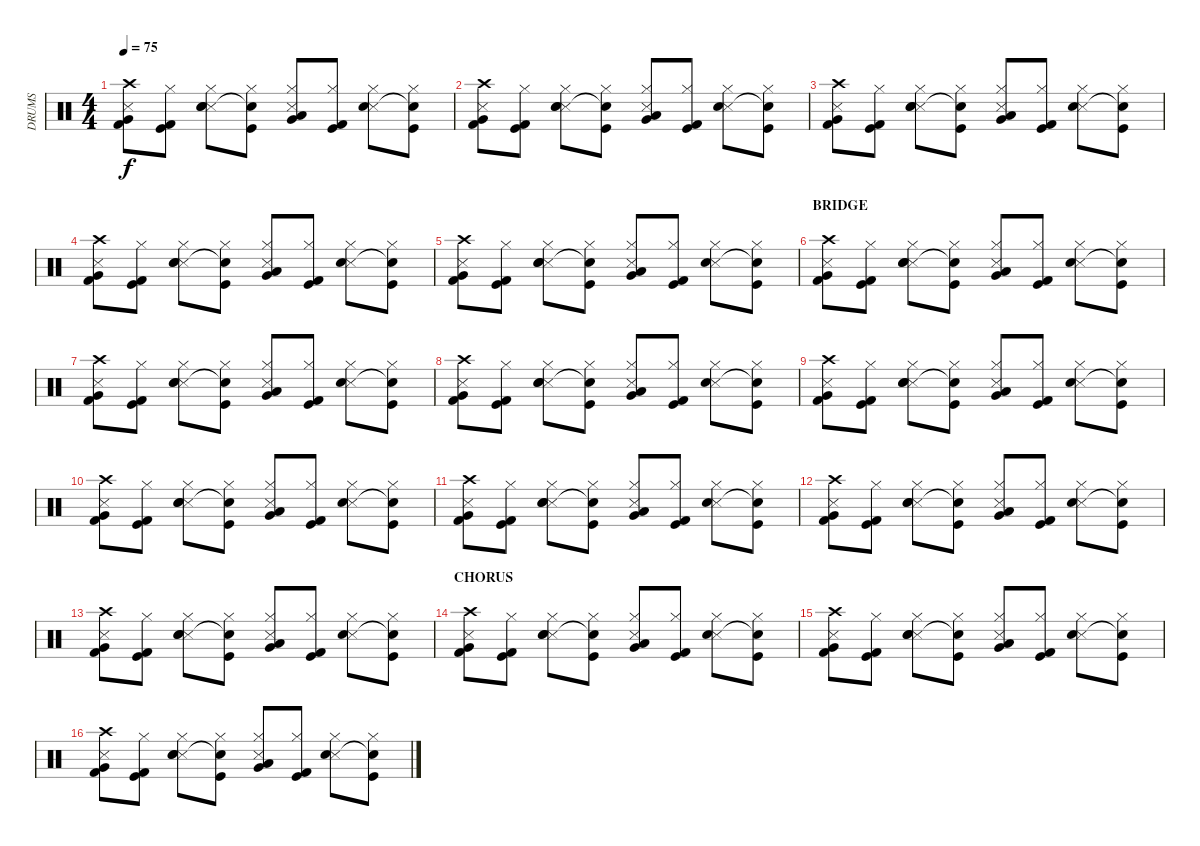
\track ("DRUMS" "DRUMS") {instrument percussion}
\staff {score}
\articulation defaults
\ts (4 4)
\tempo 75
\clef neutral
\ks c
("Crash high (hit)" "Snare (side stick) 3" "Very Low Tom (hit)" "Kick (hit) 2").8{dy f} ("Hi-Hat (closed)" "Kick (hit)" "Kick (hit) 2").8 ("Hi-Hat (closed)" "Snare (side stick) 3" "Electric Snare (hit)" "Snare (hit) 2").8 ("Hi-Hat (closed)" "Kick (hit)" "Snare (hit)"{t}).8 ("Hi-Hat (closed)" "Snare (side stick) 3" "Very Low Tom (hit)" "Low Floor Tom (hit)").8 ("Hi-Hat (closed)" "Kick (hit)" "Kick (hit) 2").8 ("Hi-Hat (closed)" "Snare (side stick) 3" "Electric Snare (hit)").8 ("Hi-Hat (closed)" "Kick (hit)" "Snare (hit)"{t}).8 |
("Crash high (hit)" "Snare (side stick) 3" "Very Low Tom (hit)" "Kick (hit) 2").8 ("Hi-Hat (closed)" "Kick (hit)" "Kick (hit) 2").8 ("Hi-Hat (closed)" "Snare (side stick) 3" "Electric Snare (hit)" "Snare (hit) 2").8 ("Hi-Hat (closed)" "Kick (hit)" "Snare (hit)"{t}).8 ("Hi-Hat (closed)" "Snare (side stick) 3" "Very Low Tom (hit)" "Low Floor Tom (hit)").8 ("Hi-Hat (closed)" "Kick (hit)" "Kick (hit) 2").8 ("Hi-Hat (closed)" "Snare (side stick) 3" "Electric Snare (hit)").8 ("Hi-Hat (closed)" "Kick (hit)" "Snare (hit)"{t}).8 |
("Crash high (hit)" "Snare (side stick) 3" "Very Low Tom (hit)" "Kick (hit) 2").8 ("Hi-Hat (closed)" "Kick (hit)" "Kick (hit) 2").8 ("Hi-Hat (closed)" "Snare (side stick) 3" "Electric Snare (hit)" "Snare (hit) 2").8 ("Hi-Hat (closed)" "Kick (hit)" "Snare (hit)"{t}).8 ("Hi-Hat (closed)" "Snare (side stick) 3" "Very Low Tom (hit)" "Low Floor Tom (hit)").8 ("Hi-Hat (closed)" "Kick (hit)" "Kick (hit) 2").8 ("Hi-Hat (closed)" "Snare (side stick) 3" "Electric Snare (hit)").8 ("Hi-Hat (closed)" "Kick (hit)" "Snare (hit)"{t}).8 |
("Crash high (hit)" "Snare (side stick) 3" "Very Low Tom (hit)" "Kick (hit) 2").8 ("Hi-Hat (closed)" "Kick (hit)" "Kick (hit) 2").8 ("Hi-Hat (closed)" "Snare (side stick) 3" "Electric Snare (hit)" "Snare (hit) 2").8 ("Hi-Hat (closed)" "Kick (hit)" "Snare (hit)"{t}).8 ("Hi-Hat (closed)" "Snare (side stick) 3" "Very Low Tom (hit)" "Low Floor Tom (hit)").8 ("Hi-Hat (closed)" "Kick (hit)" "Kick (hit) 2").8 ("Hi-Hat (closed)" "Snare (side stick) 3" "Electric Snare (hit)").8 ("Hi-Hat (closed)" "Kick (hit)" "Snare (hit)"{t}).8 |
("Crash high (hit)" "Snare (side stick) 3" "Very Low Tom (hit)" "Kick (hit) 2").8 ("Hi-Hat (closed)" "Kick (hit)" "Kick (hit) 2").8 ("Hi-Hat (closed)" "Snare (side stick) 3" "Electric Snare (hit)" "Snare (hit) 2").8 ("Hi-Hat (closed)" "Kick (hit)" "Snare (hit)"{t}).8 ("Hi-Hat (closed)" "Snare (side stick) 3" "Very Low Tom (hit)" "Low Floor Tom (hit)").8 ("Hi-Hat (closed)" "Kick (hit)" "Kick (hit) 2").8 ("Hi-Hat (closed)" "Snare (side stick) 3" "Electric Snare (hit)").8 ("Hi-Hat (closed)" "Kick (hit)" "Snare (hit)"{t}).8 |
\section ("" "BRIDGE")
("Crash high (hit)" "Snare (side stick) 3" "Very Low Tom (hit)" "Kick (hit) 2").8 ("Hi-Hat (closed)" "Kick (hit)" "Kick (hit) 2").8 ("Hi-Hat (closed)" "Snare (side stick) 3" "Electric Snare (hit)" "Snare (hit) 2").8 ("Hi-Hat (closed)" "Kick (hit)" "Snare (hit)"{t}).8 ("Hi-Hat (closed)" "Snare (side stick) 3" "Very Low Tom (hit)" "Low Floor Tom (hit)").8 ("Hi-Hat (closed)" "Kick (hit)" "Kick (hit) 2").8 ("Hi-Hat (closed)" "Snare (side stick) 3" "Electric Snare (hit)").8 ("Hi-Hat (closed)" "Kick (hit)" "Snare (hit)"{t}).8 |
("Crash high (hit)" "Snare (side stick) 3" "Very Low Tom (hit)" "Kick (hit) 2").8 ("Hi-Hat (closed)" "Kick (hit)" "Kick (hit) 2").8 ("Hi-Hat (closed)" "Snare (side stick) 3" "Electric Snare (hit)" "Snare (hit) 2").8 ("Hi-Hat (closed)" "Kick (hit)" "Snare (hit)"{t}).8 ("Hi-Hat (closed)" "Snare (side stick) 3" "Very Low Tom (hit)" "Low Floor Tom (hit)").8 ("Hi-Hat (closed)" "Kick (hit)" "Kick (hit) 2").8 ("Hi-Hat (closed)" "Snare (side stick) 3" "Electric Snare (hit)").8 ("Hi-Hat (closed)" "Kick (hit)" "Snare (hit)"{t}).8 |
("Crash high (hit)" "Snare (side stick) 3" "Very Low Tom (hit)" "Kick (hit) 2").8 ("Hi-Hat (closed)" "Kick (hit)" "Kick (hit) 2").8 ("Hi-Hat (closed)" "Snare (side stick) 3" "Electric Snare (hit)" "Snare (hit) 2").8 ("Hi-Hat (closed)" "Kick (hit)" "Snare (hit)"{t}).8 ("Hi-Hat (closed)" "Snare (side stick) 3" "Very Low Tom (hit)" "Low Floor Tom (hit)").8 ("Hi-Hat (closed)" "Kick (hit)" "Kick (hit) 2").8 ("Hi-Hat (closed)" "Snare (side stick) 3" "Electric Snare (hit)").8 ("Hi-Hat (closed)" "Kick (hit)" "Snare (hit)"{t}).8 |
("Crash high (hit)" "Snare (side stick) 3" "Very Low Tom (hit)" "Kick (hit) 2").8 ("Hi-Hat (closed)" "Kick (hit)" "Kick (hit) 2").8 ("Hi-Hat (closed)" "Snare (side stick) 3" "Electric Snare (hit)" "Snare (hit) 2").8 ("Hi-Hat (closed)" "Kick (hit)" "Snare (hit)"{t}).8 ("Hi-Hat (closed)" "Snare (side stick) 3" "Very Low Tom (hit)" "Low Floor Tom (hit)").8 ("Hi-Hat (closed)" "Kick (hit)" "Kick (hit) 2").8 ("Hi-Hat (closed)" "Snare (side stick) 3" "Electric Snare (hit)").8 ("Hi-Hat (closed)" "Kick (hit)" "Snare (hit)"{t}).8 |
("Crash high (hit)" "Snare (side stick) 3" "Very Low Tom (hit)" "Kick (hit) 2").8 ("Hi-Hat (closed)" "Kick (hit)" "Kick (hit) 2").8 ("Hi-Hat (closed)" "Snare (side stick) 3" "Electric Snare (hit)" "Snare (hit) 2").8 ("Hi-Hat (closed)" "Kick (hit)" "Snare (hit)"{t}).8 ("Hi-Hat (closed)" "Snare (side stick) 3" "Very Low Tom (hit)" "Low Floor Tom (hit)").8 ("Hi-Hat (closed)" "Kick (hit)" "Kick (hit) 2").8 ("Hi-Hat (closed)" "Snare (side stick) 3" "Electric Snare (hit)").8 ("Hi-Hat (closed)" "Kick (hit)" "Snare (hit)"{t}).8 |
("Crash high (hit)" "Snare (side stick) 3" "Very Low Tom (hit)" "Kick (hit) 2").8 ("Hi-Hat (closed)" "Kick (hit)" "Kick (hit) 2").8 ("Hi-Hat (closed)" "Snare (side stick) 3" "Electric Snare (hit)" "Snare (hit) 2").8 ("Hi-Hat (closed)" "Kick (hit)" "Snare (hit)"{t}).8 ("Hi-Hat (closed)" "Snare (side stick) 3" "Very Low Tom (hit)" "Low Floor Tom (hit)").8 ("Hi-Hat (closed)" "Kick (hit)" "Kick (hit) 2").8 ("Hi-Hat (closed)" "Snare (side stick) 3" "Electric Snare (hit)").8 ("Hi-Hat (closed)" "Kick (hit)" "Snare (hit)"{t}).8 |
("Crash high (hit)" "Snare (side stick) 3" "Very Low Tom (hit)" "Kick (hit) 2").8 ("Hi-Hat (closed)" "Kick (hit)" "Kick (hit) 2").8 ("Hi-Hat (closed)" "Snare (side stick) 3" "Electric Snare (hit)" "Snare (hit) 2").8 ("Hi-Hat (closed)" "Kick (hit)" "Snare (hit)"{t}).8 ("Hi-Hat (closed)" "Snare (side stick) 3" "Very Low Tom (hit)" "Low Floor Tom (hit)").8 ("Hi-Hat (closed)" "Kick (hit)" "Kick (hit) 2").8 ("Hi-Hat (closed)" "Snare (side stick) 3" "Electric Snare (hit)").8 ("Hi-Hat (closed)" "Kick (hit)" "Snare (hit)"{t}).8 |
("Crash high (hit)" "Snare (side stick) 3" "Very Low Tom (hit)" "Kick (hit) 2").8 ("Hi-Hat (closed)" "Kick (hit)" "Kick (hit) 2").8 ("Hi-Hat (closed)" "Snare (side stick) 3" "Electric Snare (hit)" "Snare (hit) 2").8 ("Hi-Hat (closed)" "Kick (hit)" "Snare (hit)"{t}).8 ("Hi-Hat (closed)" "Snare (side stick) 3" "Very Low Tom (hit)" "Low Floor Tom (hit)").8 ("Hi-Hat (closed)" "Kick (hit)" "Kick (hit) 2").8 ("Hi-Hat (closed)" "Snare (side stick) 3" "Electric Snare (hit)").8 ("Hi-Hat (closed)" "Kick (hit)" "Snare (hit)"{t}).8 |
\section ("" "CHORUS")
("Crash high (hit)" "Snare (side stick) 3" "Very Low Tom (hit)" "Kick (hit) 2").8 ("Hi-Hat (closed)" "Kick (hit)" "Kick (hit) 2").8 ("Hi-Hat (closed)" "Snare (side stick) 3" "Electric Snare (hit)" "Snare (hit) 2").8 ("Hi-Hat (closed)" "Kick (hit)" "Snare (hit)"{t}).8 ("Hi-Hat (closed)" "Snare (side stick) 3" "Very Low Tom (hit)" "Low Floor Tom (hit)").8 ("Hi-Hat (closed)" "Kick (hit)" "Kick (hit) 2").8 ("Hi-Hat (closed)" "Snare (side stick) 3" "Electric Snare (hit)").8 ("Hi-Hat (closed)" "Kick (hit)" "Snare (hit)"{t}).8 |
("Crash high (hit)" "Snare (side stick) 3" "Very Low Tom (hit)" "Kick (hit) 2").8 ("Hi-Hat (closed)" "Kick (hit)" "Kick (hit) 2").8 ("Hi-Hat (closed)" "Snare (side stick) 3" "Electric Snare (hit)" "Snare (hit) 2").8 ("Hi-Hat (closed)" "Kick (hit)" "Snare (hit)"{t}).8 ("Hi-Hat (closed)" "Snare (side stick) 3" "Very Low Tom (hit)" "Low Floor Tom (hit)").8 ("Hi-Hat (closed)" "Kick (hit)" "Kick (hit) 2").8 ("Hi-Hat (closed)" "Snare (side stick) 3" "Electric Snare (hit)").8 ("Hi-Hat (closed)" "Kick (hit)" "Snare (hit)"{t}).8 |
("Crash high (hit)" "Snare (side stick) 3" "Very Low Tom (hit)" "Kick (hit) 2").8 ("Hi-Hat (closed)" "Kick (hit)" "Kick (hit) 2").8 ("Hi-Hat (closed)" "Snare (side stick) 3" "Electric Snare (hit)" "Snare (hit) 2").8 ("Hi-Hat (closed)" "Kick (hit)" "Snare (hit)"{t}).8 ("Hi-Hat (closed)" "Snare (side stick) 3" "Very Low Tom (hit)" "Low Floor Tom (hit)").8 ("Hi-Hat (closed)" "Kick (hit)" "Kick (hit) 2").8 ("Hi-Hat (closed)" "Snare (side stick) 3" "Electric Snare (hit)").8 ("Hi-Hat (closed)" "Kick (hit)" "Snare (hit)"{t}).8
